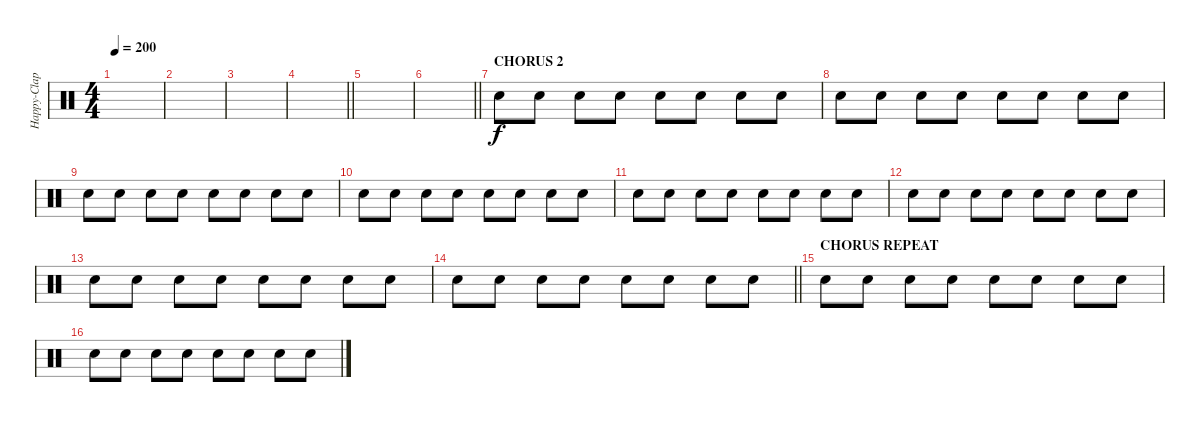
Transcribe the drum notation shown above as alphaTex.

\track ("Happy-Clappy" "Happy-Clap") {instrument percussion}
\staff {score}
\articulation defaults
\ts (4 4)
\tempo 200
\clef neutral
\ks c
|
|
|
\barLineRight lightlight
|
|
\barLineRight lightlight
|
\section ("" "CHORUS 2")
"Hand Clap (hit)".8 "Hand Clap (hit)".8 "Hand Clap (hit)".8 "Hand Clap (hit)".8 "Hand Clap (hit)".8 "Hand Clap (hit)".8 "Hand Clap (hit)".8 "Hand Clap (hit)".8 |
"Hand Clap (hit)".8 "Hand Clap (hit)".8 "Hand Clap (hit)".8 "Hand Clap (hit)".8 "Hand Clap (hit)".8 "Hand Clap (hit)".8 "Hand Clap (hit)".8 "Hand Clap (hit)".8 |
"Hand Clap (hit)".8 "Hand Clap (hit)".8 "Hand Clap (hit)".8 "Hand Clap (hit)".8 "Hand Clap (hit)".8 "Hand Clap (hit)".8 "Hand Clap (hit)".8 "Hand Clap (hit)".8 |
"Hand Clap (hit)".8 "Hand Clap (hit)".8 "Hand Clap (hit)".8 "Hand Clap (hit)".8 "Hand Clap (hit)".8 "Hand Clap (hit)".8 "Hand Clap (hit)".8 "Hand Clap (hit)".8 |
"Hand Clap (hit)".8 "Hand Clap (hit)".8 "Hand Clap (hit)".8 "Hand Clap (hit)".8 "Hand Clap (hit)".8 "Hand Clap (hit)".8 "Hand Clap (hit)".8 "Hand Clap (hit)".8 |
"Hand Clap (hit)".8 "Hand Clap (hit)".8 "Hand Clap (hit)".8 "Hand Clap (hit)".8 "Hand Clap (hit)".8 "Hand Clap (hit)".8 "Hand Clap (hit)".8 "Hand Clap (hit)".8 |
"Hand Clap (hit)".8 "Hand Clap (hit)".8 "Hand Clap (hit)".8 "Hand Clap (hit)".8 "Hand Clap (hit)".8 "Hand Clap (hit)".8 "Hand Clap (hit)".8 "Hand Clap (hit)".8 |
\barLineRight lightlight "Hand Clap (hit)".8 "Hand Clap (hit)".8 "Hand Clap (hit)".8 "Hand Clap (hit)".8 "Hand Clap (hit)".8 "Hand Clap (hit)".8 "Hand Clap (hit)".8 "Hand Clap (hit)".8
|
\section ("" "CHORUS REPEAT")
"Hand Clap (hit)".8 "Hand Clap (hit)".8 "Hand Clap (hit)".8 "Hand Clap (hit)".8 "Hand Clap (hit)".8 "Hand Clap (hit)".8 "Hand Clap (hit)".8 "Hand Clap (hit)".8 |
"Hand Clap (hit)".8 "Hand Clap (hit)".8 "Hand Clap (hit)".8 "Hand Clap (hit)".8 "Hand Clap (hit)".8 "Hand Clap (hit)".8 "Hand Clap (hit)".8 "Hand Clap (hit)".8
